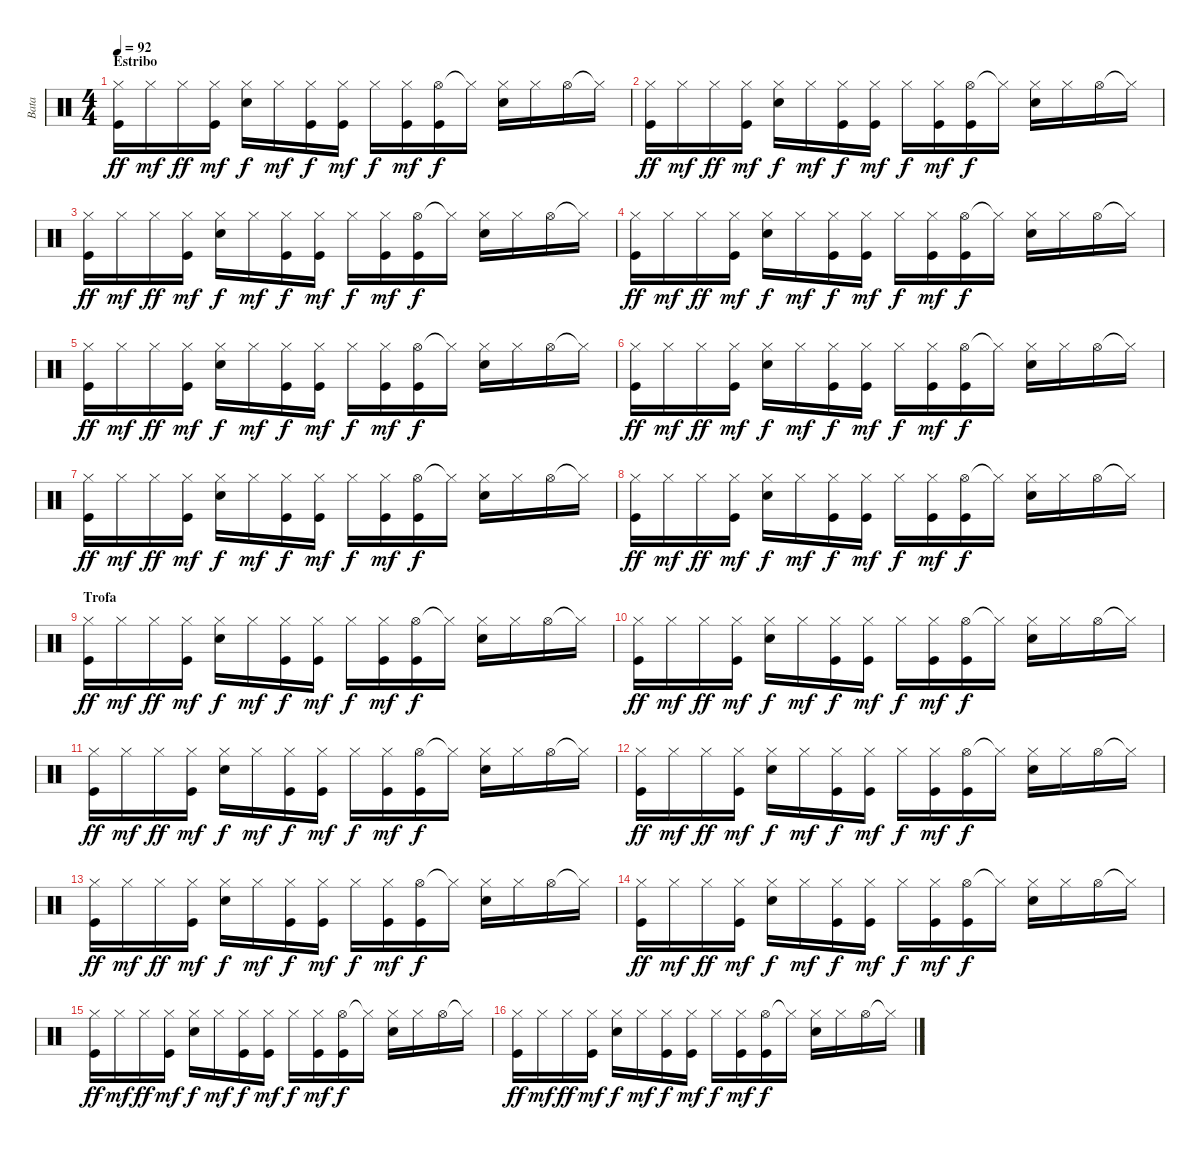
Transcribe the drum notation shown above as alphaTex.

\track ("Bata" "Bata") {instrument percussion}
\staff {score}
\articulation defaults
\ts (4 4)
\section ("" "Estribo")
\tempo 92
\clef neutral
\ks c
("Hi-Hat (closed)" "Kick (hit)").16{dy ff} "Hi-Hat (closed)".16{dy mf} "Hi-Hat (closed)".16{dy ff} ("Hi-Hat (closed)" "Kick (hit)").16{dy mf} ("Hi-Hat (closed)" "Electric Snare (hit)").16{dy f} "Hi-Hat (closed)".16{dy mf} ("Hi-Hat (closed)" "Kick (hit)").16{dy f} ("Hi-Hat (closed)" "Kick (hit)").16{dy mf} "Hi-Hat (closed)".16{dy f} ("Hi-Hat (closed)" "Kick (hit)").16{dy mf} ("Hi-Hat (open)" "Kick (hit)").16{dy f} "Hi-Hat (closed)"{t}.16 ("Hi-Hat (closed)" "Electric Snare (hit)").16 "Hi-Hat (closed)".16 "Hi-Hat (open)".16 "Hi-Hat (closed)"{t}.16 |
("Hi-Hat (closed)" "Kick (hit)").16{dy ff} "Hi-Hat (closed)".16{dy mf} "Hi-Hat (closed)".16{dy ff} ("Hi-Hat (closed)" "Kick (hit)").16{dy mf} ("Hi-Hat (closed)" "Electric Snare (hit)").16{dy f} "Hi-Hat (closed)".16{dy mf} ("Hi-Hat (closed)" "Kick (hit)").16{dy f} ("Hi-Hat (closed)" "Kick (hit)").16{dy mf} "Hi-Hat (closed)".16{dy f} ("Hi-Hat (closed)" "Kick (hit)").16{dy mf} ("Hi-Hat (open)" "Kick (hit)").16{dy f} "Hi-Hat (closed)"{t}.16 ("Hi-Hat (closed)" "Electric Snare (hit)").16 "Hi-Hat (closed)".16 "Hi-Hat (open)".16 "Hi-Hat (closed)"{t}.16 |
("Hi-Hat (closed)" "Kick (hit)").16{dy ff} "Hi-Hat (closed)".16{dy mf} "Hi-Hat (closed)".16{dy ff} ("Hi-Hat (closed)" "Kick (hit)").16{dy mf} ("Hi-Hat (closed)" "Electric Snare (hit)").16{dy f} "Hi-Hat (closed)".16{dy mf} ("Hi-Hat (closed)" "Kick (hit)").16{dy f} ("Hi-Hat (closed)" "Kick (hit)").16{dy mf} "Hi-Hat (closed)".16{dy f} ("Hi-Hat (closed)" "Kick (hit)").16{dy mf} ("Hi-Hat (open)" "Kick (hit)").16{dy f} "Hi-Hat (closed)"{t}.16 ("Hi-Hat (closed)" "Electric Snare (hit)").16 "Hi-Hat (closed)".16 "Hi-Hat (open)".16 "Hi-Hat (closed)"{t}.16 |
("Hi-Hat (closed)" "Kick (hit)").16{dy ff} "Hi-Hat (closed)".16{dy mf} "Hi-Hat (closed)".16{dy ff} ("Hi-Hat (closed)" "Kick (hit)").16{dy mf} ("Hi-Hat (closed)" "Electric Snare (hit)").16{dy f} "Hi-Hat (closed)".16{dy mf} ("Hi-Hat (closed)" "Kick (hit)").16{dy f} ("Hi-Hat (closed)" "Kick (hit)").16{dy mf} "Hi-Hat (closed)".16{dy f} ("Hi-Hat (closed)" "Kick (hit)").16{dy mf} ("Hi-Hat (open)" "Kick (hit)").16{dy f} "Hi-Hat (closed)"{t}.16 ("Hi-Hat (closed)" "Electric Snare (hit)").16 "Hi-Hat (closed)".16 "Hi-Hat (open)".16 "Hi-Hat (closed)"{t}.16 |
("Hi-Hat (closed)" "Kick (hit)").16{dy ff} "Hi-Hat (closed)".16{dy mf} "Hi-Hat (closed)".16{dy ff} ("Hi-Hat (closed)" "Kick (hit)").16{dy mf} ("Hi-Hat (closed)" "Electric Snare (hit)").16{dy f} "Hi-Hat (closed)".16{dy mf} ("Hi-Hat (closed)" "Kick (hit)").16{dy f} ("Hi-Hat (closed)" "Kick (hit)").16{dy mf} "Hi-Hat (closed)".16{dy f} ("Hi-Hat (closed)" "Kick (hit)").16{dy mf} ("Hi-Hat (open)" "Kick (hit)").16{dy f} "Hi-Hat (closed)"{t}.16 ("Hi-Hat (closed)" "Electric Snare (hit)").16 "Hi-Hat (closed)".16 "Hi-Hat (open)".16 "Hi-Hat (closed)"{t}.16 |
("Hi-Hat (closed)" "Kick (hit)").16{dy ff} "Hi-Hat (closed)".16{dy mf} "Hi-Hat (closed)".16{dy ff} ("Hi-Hat (closed)" "Kick (hit)").16{dy mf} ("Hi-Hat (closed)" "Electric Snare (hit)").16{dy f} "Hi-Hat (closed)".16{dy mf} ("Hi-Hat (closed)" "Kick (hit)").16{dy f} ("Hi-Hat (closed)" "Kick (hit)").16{dy mf} "Hi-Hat (closed)".16{dy f} ("Hi-Hat (closed)" "Kick (hit)").16{dy mf} ("Hi-Hat (open)" "Kick (hit)").16{dy f} "Hi-Hat (closed)"{t}.16 ("Hi-Hat (closed)" "Electric Snare (hit)").16 "Hi-Hat (closed)".16 "Hi-Hat (open)".16 "Hi-Hat (closed)"{t}.16 |
("Hi-Hat (closed)" "Kick (hit)").16{dy ff} "Hi-Hat (closed)".16{dy mf} "Hi-Hat (closed)".16{dy ff} ("Hi-Hat (closed)" "Kick (hit)").16{dy mf} ("Hi-Hat (closed)" "Electric Snare (hit)").16{dy f} "Hi-Hat (closed)".16{dy mf} ("Hi-Hat (closed)" "Kick (hit)").16{dy f} ("Hi-Hat (closed)" "Kick (hit)").16{dy mf} "Hi-Hat (closed)".16{dy f} ("Hi-Hat (closed)" "Kick (hit)").16{dy mf} ("Hi-Hat (open)" "Kick (hit)").16{dy f} "Hi-Hat (closed)"{t}.16 ("Hi-Hat (closed)" "Electric Snare (hit)").16 "Hi-Hat (closed)".16 "Hi-Hat (open)".16 "Hi-Hat (closed)"{t}.16 |
("Hi-Hat (closed)" "Kick (hit)").16{dy ff} "Hi-Hat (closed)".16{dy mf} "Hi-Hat (closed)".16{dy ff} ("Hi-Hat (closed)" "Kick (hit)").16{dy mf} ("Hi-Hat (closed)" "Electric Snare (hit)").16{dy f} "Hi-Hat (closed)".16{dy mf} ("Hi-Hat (closed)" "Kick (hit)").16{dy f} ("Hi-Hat (closed)" "Kick (hit)").16{dy mf} "Hi-Hat (closed)".16{dy f} ("Hi-Hat (closed)" "Kick (hit)").16{dy mf} ("Hi-Hat (open)" "Kick (hit)").16{dy f} "Hi-Hat (closed)"{t}.16 ("Hi-Hat (closed)" "Electric Snare (hit)").16 "Hi-Hat (closed)".16 "Hi-Hat (open)".16 "Hi-Hat (closed)"{t}.16 |
\section ("" "Trofa")
("Hi-Hat (closed)" "Kick (hit)").16{dy ff} "Hi-Hat (closed)".16{dy mf} "Hi-Hat (closed)".16{dy ff} ("Hi-Hat (closed)" "Kick (hit)").16{dy mf} ("Hi-Hat (closed)" "Electric Snare (hit)").16{dy f} "Hi-Hat (closed)".16{dy mf} ("Hi-Hat (closed)" "Kick (hit)").16{dy f} ("Hi-Hat (closed)" "Kick (hit)").16{dy mf} "Hi-Hat (closed)".16{dy f} ("Hi-Hat (closed)" "Kick (hit)").16{dy mf} ("Hi-Hat (open)" "Kick (hit)").16{dy f} "Hi-Hat (closed)"{t}.16 ("Hi-Hat (closed)" "Electric Snare (hit)").16 "Hi-Hat (closed)".16 "Hi-Hat (open)".16 "Hi-Hat (closed)"{t}.16 |
("Hi-Hat (closed)" "Kick (hit)").16{dy ff} "Hi-Hat (closed)".16{dy mf} "Hi-Hat (closed)".16{dy ff} ("Hi-Hat (closed)" "Kick (hit)").16{dy mf} ("Hi-Hat (closed)" "Electric Snare (hit)").16{dy f} "Hi-Hat (closed)".16{dy mf} ("Hi-Hat (closed)" "Kick (hit)").16{dy f} ("Hi-Hat (closed)" "Kick (hit)").16{dy mf} "Hi-Hat (closed)".16{dy f} ("Hi-Hat (closed)" "Kick (hit)").16{dy mf} ("Hi-Hat (open)" "Kick (hit)").16{dy f} "Hi-Hat (closed)"{t}.16 ("Hi-Hat (closed)" "Electric Snare (hit)").16 "Hi-Hat (closed)".16 "Hi-Hat (open)".16 "Hi-Hat (closed)"{t}.16 |
("Hi-Hat (closed)" "Kick (hit)").16{dy ff} "Hi-Hat (closed)".16{dy mf} "Hi-Hat (closed)".16{dy ff} ("Hi-Hat (closed)" "Kick (hit)").16{dy mf} ("Hi-Hat (closed)" "Electric Snare (hit)").16{dy f} "Hi-Hat (closed)".16{dy mf} ("Hi-Hat (closed)" "Kick (hit)").16{dy f} ("Hi-Hat (closed)" "Kick (hit)").16{dy mf} "Hi-Hat (closed)".16{dy f} ("Hi-Hat (closed)" "Kick (hit)").16{dy mf} ("Hi-Hat (open)" "Kick (hit)").16{dy f} "Hi-Hat (closed)"{t}.16 ("Hi-Hat (closed)" "Electric Snare (hit)").16 "Hi-Hat (closed)".16 "Hi-Hat (open)".16 "Hi-Hat (closed)"{t}.16 |
("Hi-Hat (closed)" "Kick (hit)").16{dy ff} "Hi-Hat (closed)".16{dy mf} "Hi-Hat (closed)".16{dy ff} ("Hi-Hat (closed)" "Kick (hit)").16{dy mf} ("Hi-Hat (closed)" "Electric Snare (hit)").16{dy f} "Hi-Hat (closed)".16{dy mf} ("Hi-Hat (closed)" "Kick (hit)").16{dy f} ("Hi-Hat (closed)" "Kick (hit)").16{dy mf} "Hi-Hat (closed)".16{dy f} ("Hi-Hat (closed)" "Kick (hit)").16{dy mf} ("Hi-Hat (open)" "Kick (hit)").16{dy f} "Hi-Hat (closed)"{t}.16 ("Hi-Hat (closed)" "Electric Snare (hit)").16 "Hi-Hat (closed)".16 "Hi-Hat (open)".16 "Hi-Hat (closed)"{t}.16 |
("Hi-Hat (closed)" "Kick (hit)").16{dy ff} "Hi-Hat (closed)".16{dy mf} "Hi-Hat (closed)".16{dy ff} ("Hi-Hat (closed)" "Kick (hit)").16{dy mf} ("Hi-Hat (closed)" "Electric Snare (hit)").16{dy f} "Hi-Hat (closed)".16{dy mf} ("Hi-Hat (closed)" "Kick (hit)").16{dy f} ("Hi-Hat (closed)" "Kick (hit)").16{dy mf} "Hi-Hat (closed)".16{dy f} ("Hi-Hat (closed)" "Kick (hit)").16{dy mf} ("Hi-Hat (open)" "Kick (hit)").16{dy f} "Hi-Hat (closed)"{t}.16 ("Hi-Hat (closed)" "Electric Snare (hit)").16 "Hi-Hat (closed)".16 "Hi-Hat (open)".16 "Hi-Hat (closed)"{t}.16 |
("Hi-Hat (closed)" "Kick (hit)").16{dy ff} "Hi-Hat (closed)".16{dy mf} "Hi-Hat (closed)".16{dy ff} ("Hi-Hat (closed)" "Kick (hit)").16{dy mf} ("Hi-Hat (closed)" "Electric Snare (hit)").16{dy f} "Hi-Hat (closed)".16{dy mf} ("Hi-Hat (closed)" "Kick (hit)").16{dy f} ("Hi-Hat (closed)" "Kick (hit)").16{dy mf} "Hi-Hat (closed)".16{dy f} ("Hi-Hat (closed)" "Kick (hit)").16{dy mf} ("Hi-Hat (open)" "Kick (hit)").16{dy f} "Hi-Hat (closed)"{t}.16 ("Hi-Hat (closed)" "Electric Snare (hit)").16 "Hi-Hat (closed)".16 "Hi-Hat (open)".16 "Hi-Hat (closed)"{t}.16 |
("Hi-Hat (closed)" "Kick (hit)").16{dy ff} "Hi-Hat (closed)".16{dy mf} "Hi-Hat (closed)".16{dy ff} ("Hi-Hat (closed)" "Kick (hit)").16{dy mf} ("Hi-Hat (closed)" "Electric Snare (hit)").16{dy f} "Hi-Hat (closed)".16{dy mf} ("Hi-Hat (closed)" "Kick (hit)").16{dy f} ("Hi-Hat (closed)" "Kick (hit)").16{dy mf} "Hi-Hat (closed)".16{dy f} ("Hi-Hat (closed)" "Kick (hit)").16{dy mf} ("Hi-Hat (open)" "Kick (hit)").16{dy f} "Hi-Hat (closed)"{t}.16 ("Hi-Hat (closed)" "Electric Snare (hit)").16 "Hi-Hat (closed)".16 "Hi-Hat (open)".16 "Hi-Hat (closed)"{t}.16 |
("Hi-Hat (closed)" "Kick (hit)").16{dy ff} "Hi-Hat (closed)".16{dy mf} "Hi-Hat (closed)".16{dy ff} ("Hi-Hat (closed)" "Kick (hit)").16{dy mf} ("Hi-Hat (closed)" "Electric Snare (hit)").16{dy f} "Hi-Hat (closed)".16{dy mf} ("Hi-Hat (closed)" "Kick (hit)").16{dy f} ("Hi-Hat (closed)" "Kick (hit)").16{dy mf} "Hi-Hat (closed)".16{dy f} ("Hi-Hat (closed)" "Kick (hit)").16{dy mf} ("Hi-Hat (open)" "Kick (hit)").16{dy f} "Hi-Hat (closed)"{t}.16 ("Hi-Hat (closed)" "Electric Snare (hit)").16 "Hi-Hat (closed)".16 "Hi-Hat (open)".16 "Hi-Hat (closed)"{t}.16
